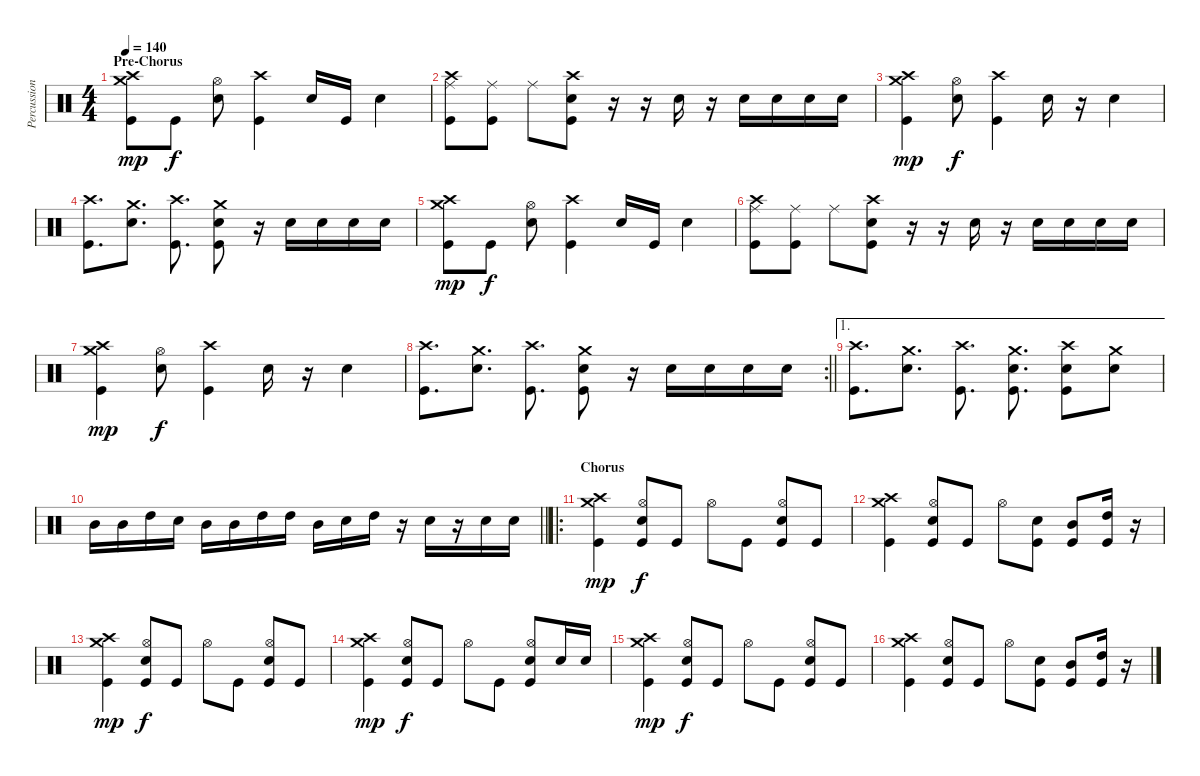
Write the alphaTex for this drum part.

\track ("Percussion" "Percussion") {instrument percussion}
\staff {score}
\articulation defaults
\ts (4 4)
\section ("" "Pre-Chorus")
\tempo 140
\clef neutral
\ks c
("Crash high (hit)" "Crash medium (hit)" "Kick (hit)").8{dy mp} "Kick (hit)".8{dy f} ("Hi-Hat (open)" "Electric Snare (hit)").8 ("Crash high (hit)" "Kick (hit)").4 "Electric Snare (hit)".16 "Kick (hit)".16 "Electric Snare (hit)".4 |
("Crash high (hit)" "Ride (middle)" "Kick (hit)").8 ("Ride (middle)" "Kick (hit)").8 "Ride (middle)".8 ("Crash high (hit)" "Electric Snare (hit)" "Kick (hit)").8 r.16 r.16 "Electric Snare (hit)".16 r.16 "Electric Snare (hit)".16 "Electric Snare (hit)".16 "Electric Snare (hit)".16 "Electric Snare (hit)".16 |
("Crash high (hit)" "Crash medium (hit)" "Kick (hit)").4{dy mp} ("Hi-Hat (open)" "Electric Snare (hit)").8{dy f} ("Crash high (hit)" "Kick (hit)").4 "Electric Snare (hit)".16 r.16 "Electric Snare (hit)".4 |
("Crash high (hit)" "Kick (hit)").8{d} ("Crash medium (hit)" "Electric Snare (hit)").8{d} ("Crash high (hit)" "Kick (hit)").8{d} ("Crash medium (hit)" "Electric Snare (hit)" "Kick (hit)").8 r.16 "Electric Snare (hit)".16 "Electric Snare (hit)".16 "Electric Snare (hit)".16 "Electric Snare (hit)".16 |
("Crash high (hit)" "Crash medium (hit)" "Kick (hit)").8{dy mp} "Kick (hit)".8{dy f} ("Hi-Hat (open)" "Electric Snare (hit)").8 ("Crash high (hit)" "Kick (hit)").4 "Electric Snare (hit)".16 "Kick (hit)".16 "Electric Snare (hit)".4 |
("Crash high (hit)" "Ride (middle)" "Kick (hit)").8 ("Ride (middle)" "Kick (hit)").8 "Ride (middle)".8 ("Crash high (hit)" "Electric Snare (hit)" "Kick (hit)").8 r.16 r.16 "Electric Snare (hit)".16 r.16 "Electric Snare (hit)".16 "Electric Snare (hit)".16 "Electric Snare (hit)".16 "Electric Snare (hit)".16 |
("Crash high (hit)" "Crash medium (hit)" "Kick (hit)").4{dy mp} ("Hi-Hat (open)" "Electric Snare (hit)").8{dy f} ("Crash high (hit)" "Kick (hit)").4 "Electric Snare (hit)".16 r.16 "Electric Snare (hit)".4 |
\rc 2
\barLineRight lightlight
("Crash high (hit)" "Kick (hit)").8{d} ("Crash medium (hit)" "Electric Snare (hit)").8{d} ("Crash high (hit)" "Kick (hit)").8{d} ("Crash medium (hit)" "Electric Snare (hit)" "Kick (hit)").8 r.16 "Electric Snare (hit)".16 "Electric Snare (hit)".16 "Electric Snare (hit)".16 "Electric Snare (hit)".16 |
\ae 1
("Crash high (hit)" "Kick (hit)").8{d} ("Crash medium (hit)" "Electric Snare (hit)").8{d} ("Crash high (hit)" "Kick (hit)").8{d} ("Crash medium (hit)" "Electric Snare (hit)" "Kick (hit)").8{d} ("Crash high (hit)" "Electric Snare (hit)" "Kick (hit)").8 ("Crash medium (hit)" "Electric Snare (hit)").8 |
\barLineRight lightlight "Mid Tom (hit)".16 "Mid Tom (hit)".16 "High Tom (hit)".16 "Electric Snare (hit)".16 "Mid Tom (hit)".16 "Mid Tom (hit)".16 "High Tom (hit)".16 "High Tom (hit)".16 "Mid Tom (hit)".16 "Electric Snare (hit)".16 "High Tom (hit)".16
r.16 "Electric Snare (hit)".16 r.16 "Electric Snare (hit)".16 "Electric Snare (hit)".16 |
\ro
\section ("" "Chorus")
("Crash high (hit)" "Crash medium (hit)" "Kick (hit)").4{dy mp} ("Hi-Hat (open)" "Electric Snare (hit)" "Kick (hit)").8{dy f} "Kick (hit)".8 "Hi-Hat (open)".8 "Kick (hit)".8 ("Hi-Hat (open)" "Electric Snare (hit)" "Kick (hit)").8 "Kick (hit)".8 |
("Crash high (hit)" "Crash medium (hit)" "Kick (hit)").4 ("Hi-Hat (open)" "Electric Snare (hit)" "Kick (hit)").8 "Kick (hit)".8 "Hi-Hat (open)".8 ("Electric Snare (hit)" "Kick (hit)").8 ("Mid Tom (hit)" "Kick (hit)").8 ("High Tom (hit)" "Kick (hit)").16 r.16 |
("Crash high (hit)" "Crash medium (hit)" "Kick (hit)").4{dy mp} ("Hi-Hat (open)" "Electric Snare (hit)" "Kick (hit)").8{dy f} "Kick (hit)".8 "Hi-Hat (open)".8 "Kick (hit)".8 ("Hi-Hat (open)" "Electric Snare (hit)" "Kick (hit)").8 "Kick (hit)".8 |
("Crash high (hit)" "Crash medium (hit)" "Kick (hit)").4{dy mp} ("Hi-Hat (open)" "Electric Snare (hit)" "Kick (hit)").8{dy f} "Kick (hit)".8 "Hi-Hat (open)".8 "Kick (hit)".8 ("Hi-Hat (open)" "Electric Snare (hit)" "Kick (hit)").8 "Electric Snare (hit)".16 "Electric Snare (hit)".16 |
("Crash high (hit)" "Crash medium (hit)" "Kick (hit)").4{dy mp} ("Hi-Hat (open)" "Electric Snare (hit)" "Kick (hit)").8{dy f} "Kick (hit)".8 "Hi-Hat (open)".8 "Kick (hit)".8 ("Hi-Hat (open)" "Electric Snare (hit)" "Kick (hit)").8 "Kick (hit)".8 |
("Crash high (hit)" "Crash medium (hit)" "Kick (hit)").4 ("Hi-Hat (open)" "Electric Snare (hit)" "Kick (hit)").8 "Kick (hit)".8 "Hi-Hat (open)".8 ("Electric Snare (hit)" "Kick (hit)").8 ("Mid Tom (hit)" "Kick (hit)").8 ("High Tom (hit)" "Kick (hit)").16 r.16
